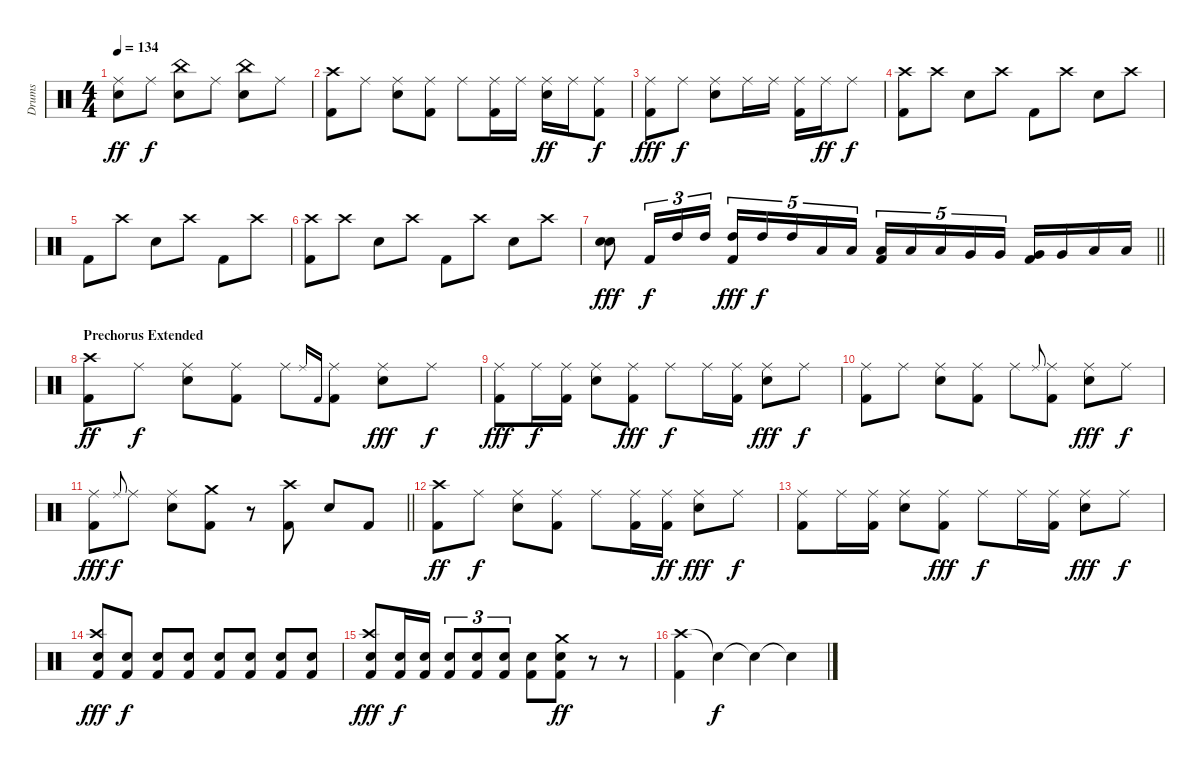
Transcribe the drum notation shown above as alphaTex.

\track ("Drums" "Drums") {instrument percussion}
\staff {score}
\articulation defaults
\ts (4 4)
\tempo 134
\clef neutral
\ks c
("Ride (middle)" "Snare (hit) 2").8{dy ff} "Ride (middle)".8{dy f} ("China (hit)" "Snare (hit) 2").8 "Ride (middle)".8 ("China (hit)" "Snare (hit) 2").8 "Ride (middle)".8 |
("Crash high (hit)" "Kick (hit) 2").8 "Ride (middle)".8 ("Ride (middle)" "Snare (hit) 2").8 ("Ride (middle)" "Kick (hit) 2").8 "Ride (middle)".8 ("Ride (middle)" "Kick (hit) 2").16 "Ride (middle)".16 ("Ride (middle)" "Snare (hit) 2").16{dy ff} "Ride (middle)".16 ("Ride (middle)" "Kick (hit) 2").8{dy f} |
("Ride (middle)" "Kick (hit) 2").8{dy fff} "Ride (middle)".8{dy f} ("Ride (middle)" "Snare (hit) 2").8 "Ride (middle)".16 "Ride (middle)".16 ("Ride (middle)" "Kick (hit) 2").16 "Ride (middle)".16{dy ff} "Ride (middle)".8{dy f} |
("Crash high (hit)" "Kick (hit) 2").8 "Crash high (hit)".8 "Snare (hit) 2".8 "Crash high (hit)".8 "Kick (hit) 2".8 "Crash high (hit)".8 "Snare (hit) 2".8 "Crash high (hit)".8 |
"Kick (hit) 2".8 "Crash high (hit)".8 "Snare (hit) 2".8 "Crash high (hit)".8 "Kick (hit) 2".8 "Crash high (hit)".8 |
("Crash high (hit)" "Kick (hit) 2").8 "Crash high (hit)".8 "Snare (hit) 2".8 "Crash high (hit)".8 "Kick (hit) 2".8 "Crash high (hit)".8 "Snare (hit) 2".8 "Crash high (hit)".8 |
\barLineRight lightlight
("Snare (hit) 2" "Snare (hit) 2").8{dy fff} "Kick (hit) 2".16{tu (3 2) dy f} "High Tom (hit)".16{tu (3 2)} "High Tom (hit)".16{tu (3 2)} ("High Tom (hit)" "Kick (hit) 2").16{tu (5 4) dy fff} "High Tom (hit)".16{tu (5 4) dy f} "High Tom (hit)".16{tu (5 4)} "Low Tom (hit)".16{tu (5 4)} "Low Tom (hit)".16{tu (5 4)} ("Low Tom (hit)" "Kick (hit) 2").16{tu (5 4)} "Low Tom (hit)".16{tu (5 4)} "Low Tom (hit)".16{tu (5 4)} "Very Low Tom (hit)".16{tu (5 4)} "Very Low Tom (hit)".16{tu (5 4)} ("Very Low Tom (hit)" "Kick (hit) 2").16 "Very Low Tom (hit)".16 "Low Floor Tom (hit)".16 "Low Floor Tom (hit)".16 |
\section ("" "Prechorus Extended")
("Crash high (hit)" "Kick (hit) 2").8{dy ff} "Ride (middle)".8{dy f} ("Ride (middle)" "Snare (hit) 2").8 ("Ride (middle)" "Kick (hit) 2").8 "Ride (middle)".8 "Ride (middle)".16{gr onbeat} "Kick (hit) 2".16{gr onbeat} ("Ride (middle)" "Kick (hit) 2").8 ("Ride (middle)" "Snare (hit) 2").8{dy fff} "Ride (middle)".8{dy f} |
("Ride (middle)" "Kick (hit) 2").8{dy fff} "Ride (middle)".16{dy f} ("Ride (middle)" "Kick (hit) 2").16 ("Ride (middle)" "Snare (hit) 2").8 ("Ride (middle)" "Kick (hit) 2").8{dy fff} "Ride (middle)".8{dy f} "Ride (middle)".16 ("Ride (middle)" "Kick (hit) 2").16 ("Ride (middle)" "Snare (hit) 2").8{dy fff} "Ride (middle)".8{dy f} |
("Ride (middle)" "Kick (hit) 2").8 "Ride (middle)".8 ("Ride (middle)" "Snare (hit) 2").8 ("Ride (middle)" "Kick (hit) 2").8 "Ride (middle)".8 "Ride (middle)".8{gr onbeat} ("Ride (middle)" "Kick (hit) 2").8 ("Ride (middle)" "Snare (hit) 2").8{dy fff} "Ride (middle)".8{dy f} |
\barLineRight lightlight
("Ride (middle)" "Kick (hit) 2").8{dy fff} "Ride (middle)".8{gr onbeat dy f} "Ride (middle)".8 ("Ride (middle)" "Snare (hit) 2").8 ("Crash medium (hit)" "Kick (hit) 2").8 r.8 ("Crash high (hit)" "Kick (hit) 2").8 "Snare (hit) 2".8 "Kick (hit) 2".8 |
("Crash high (hit)" "Kick (hit) 2").8{dy ff volume 16 balance 8} "Ride (middle)".8{dy f} ("Ride (middle)" "Snare (hit) 2").8 ("Ride (middle)" "Kick (hit) 2").8 "Ride (middle)".8 ("Ride (middle)" "Kick (hit) 2").16 ("Ride (middle)" "Kick (hit) 2").16{dy ff} ("Ride (middle)" "Snare (hit) 2").8{dy fff} "Ride (middle)".8{dy f} |
("Ride (middle)" "Kick (hit) 2").8 "Ride (middle)".16 ("Ride (middle)" "Kick (hit) 2").16 ("Ride (middle)" "Snare (hit) 2").8 ("Ride (middle)" "Kick (hit) 2").8{dy fff} "Ride (middle)".8{dy f} "Ride (middle)".16 ("Ride (middle)" "Kick (hit) 2").16 ("Ride (middle)" "Snare (hit) 2").8{dy fff} "Ride (middle)".8{dy f} |
("Crash high (hit)" "Snare (hit) 2" "Kick (hit) 2").8{dy fff} ("Snare (hit) 2" "Kick (hit) 2").8{dy f} ("Snare (hit) 2" "Kick (hit) 2").8 ("Snare (hit) 2" "Kick (hit) 2").8 ("Snare (hit) 2" "Kick (hit) 2").8 ("Snare (hit) 2" "Kick (hit) 2").8 ("Snare (hit) 2" "Kick (hit) 2").8 ("Snare (hit) 2" "Kick (hit) 2").8 |
("Crash high (hit)" "Snare (hit) 2" "Kick (hit) 2").8{dy fff} ("Snare (hit) 2" "Kick (hit) 2").16{dy f} ("Snare (hit) 2" "Kick (hit) 2").16 ("Snare (hit) 2" "Kick (hit) 2").8{tu (3 2)} ("Snare (hit) 2" "Kick (hit) 2").8{tu (3 2)} ("Snare (hit) 2" "Kick (hit) 2").8{tu (3 2)} ("Snare (hit) 2" "Kick (hit) 2").8 ("Crash medium (hit)" "Snare (hit) 2" "Kick (hit) 2").8{dy ff} r.8 r.8 |
("Crash high (hit)" "Kick (hit) 2").4 "Snare (hit)"{t}.4{dy f} "Snare (hit)"{t}.4 "Snare (hit)"{t}.4
